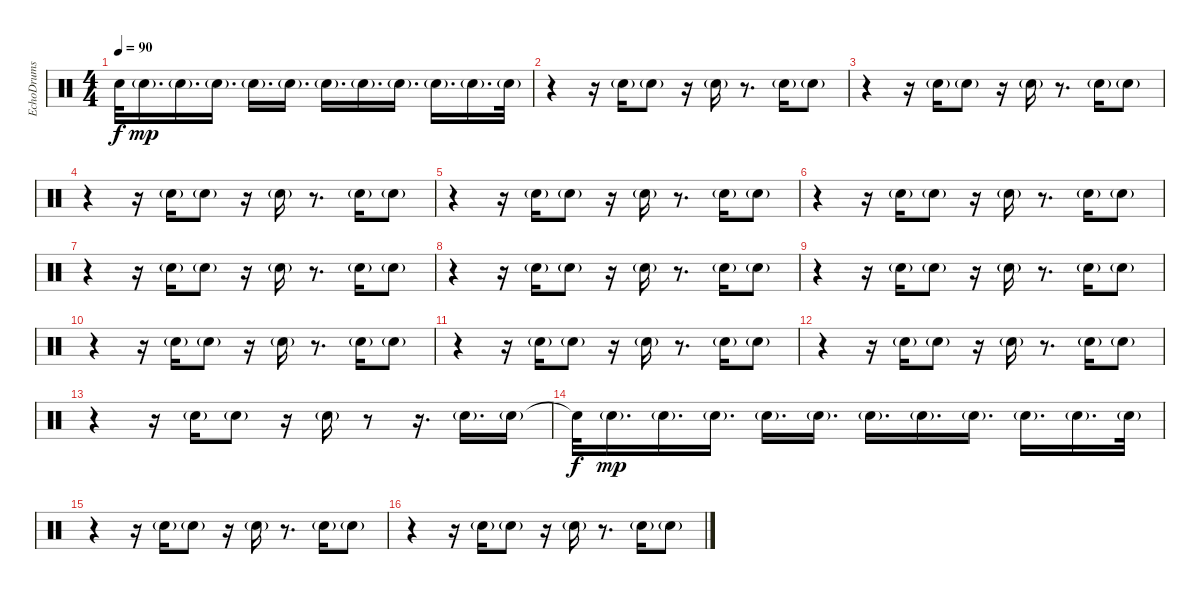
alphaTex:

\track ("EchoDrums" "EchoDrums") {instrument percussion}
\staff {score}
\articulation defaults
\ts (4 4)
\tempo 90
\clef neutral
\ks c "Snare (hit)"{t}.32{dy f} "Electric Snare (hit)"{g}.16{d dy mp} "Electric Snare (hit)"{g}.16{d} "Electric Snare (hit)"{g}.16{d} "Electric Snare (hit)"{g}.16{d} "Electric Snare (hit)"{g}.16{d} "Electric Snare (hit)"{g}.16{d} "Electric Snare (hit)"{g}.16{d} "Electric Snare (hit)"{g}.16{d} "Electric Snare (hit)"{g}.16{d} "Electric Snare (hit)"{g}.16{d} "Electric Snare (hit)"{g}.32
|
r.4 r.16 "Electric Snare (hit)"{g}.16 "Electric Snare (hit)"{g}.8 r.16 "Electric Snare (hit)"{g}.16 r.8{d} "Electric Snare (hit)"{g}.16 "Electric Snare (hit)"{g}.8 |
r.4 r.16 "Electric Snare (hit)"{g}.16 "Electric Snare (hit)"{g}.8 r.16 "Electric Snare (hit)"{g}.16 r.8{d} "Electric Snare (hit)"{g}.16 "Electric Snare (hit)"{g}.8 |
r.4 r.16 "Electric Snare (hit)"{g}.16 "Electric Snare (hit)"{g}.8 r.16 "Electric Snare (hit)"{g}.16 r.8{d} "Electric Snare (hit)"{g}.16 "Electric Snare (hit)"{g}.8 |
r.4 r.16 "Electric Snare (hit)"{g}.16 "Electric Snare (hit)"{g}.8 r.16 "Electric Snare (hit)"{g}.16 r.8{d} "Electric Snare (hit)"{g}.16 "Electric Snare (hit)"{g}.8 |
r.4 r.16 "Electric Snare (hit)"{g}.16 "Electric Snare (hit)"{g}.8 r.16 "Electric Snare (hit)"{g}.16 r.8{d} "Electric Snare (hit)"{g}.16 "Electric Snare (hit)"{g}.8 |
r.4 r.16 "Electric Snare (hit)"{g}.16 "Electric Snare (hit)"{g}.8 r.16 "Electric Snare (hit)"{g}.16 r.8{d} "Electric Snare (hit)"{g}.16 "Electric Snare (hit)"{g}.8 |
r.4 r.16 "Electric Snare (hit)"{g}.16 "Electric Snare (hit)"{g}.8 r.16 "Electric Snare (hit)"{g}.16 r.8{d} "Electric Snare (hit)"{g}.16 "Electric Snare (hit)"{g}.8 |
r.4 r.16 "Electric Snare (hit)"{g}.16 "Electric Snare (hit)"{g}.8 r.16 "Electric Snare (hit)"{g}.16 r.8{d} "Electric Snare (hit)"{g}.16 "Electric Snare (hit)"{g}.8 |
r.4 r.16 "Electric Snare (hit)"{g}.16 "Electric Snare (hit)"{g}.8 r.16 "Electric Snare (hit)"{g}.16 r.8{d} "Electric Snare (hit)"{g}.16 "Electric Snare (hit)"{g}.8 |
r.4 r.16 "Electric Snare (hit)"{g}.16 "Electric Snare (hit)"{g}.8 r.16 "Electric Snare (hit)"{g}.16 r.8{d} "Electric Snare (hit)"{g}.16 "Electric Snare (hit)"{g}.8 |
r.4 r.16 "Electric Snare (hit)"{g}.16 "Electric Snare (hit)"{g}.8 r.16 "Electric Snare (hit)"{g}.16 r.8{d} "Electric Snare (hit)"{g}.16 "Electric Snare (hit)"{g}.8 |
r.4 r.16 "Electric Snare (hit)"{g}.16 "Electric Snare (hit)"{g}.8 r.16 "Electric Snare (hit)"{g}.16 r.8 r.16{d} "Electric Snare (hit)"{g}.16{d} "Electric Snare (hit)"{g}.16 |
"Snare (hit)"{t}.32{dy f} "Electric Snare (hit)"{g}.16{d dy mp} "Electric Snare (hit)"{g}.16{d} "Electric Snare (hit)"{g}.16{d} "Electric Snare (hit)"{g}.16{d} "Electric Snare (hit)"{g}.16{d} "Electric Snare (hit)"{g}.16{d} "Electric Snare (hit)"{g}.16{d} "Electric Snare (hit)"{g}.16{d} "Electric Snare (hit)"{g}.16{d} "Electric Snare (hit)"{g}.16{d} "Electric Snare (hit)"{g}.32 |
r.4 r.16 "Electric Snare (hit)"{g}.16 "Electric Snare (hit)"{g}.8 r.16 "Electric Snare (hit)"{g}.16 r.8{d} "Electric Snare (hit)"{g}.16 "Electric Snare (hit)"{g}.8 |
r.4 r.16 "Electric Snare (hit)"{g}.16 "Electric Snare (hit)"{g}.8 r.16 "Electric Snare (hit)"{g}.16 r.8{d} "Electric Snare (hit)"{g}.16 "Electric Snare (hit)"{g}.8
